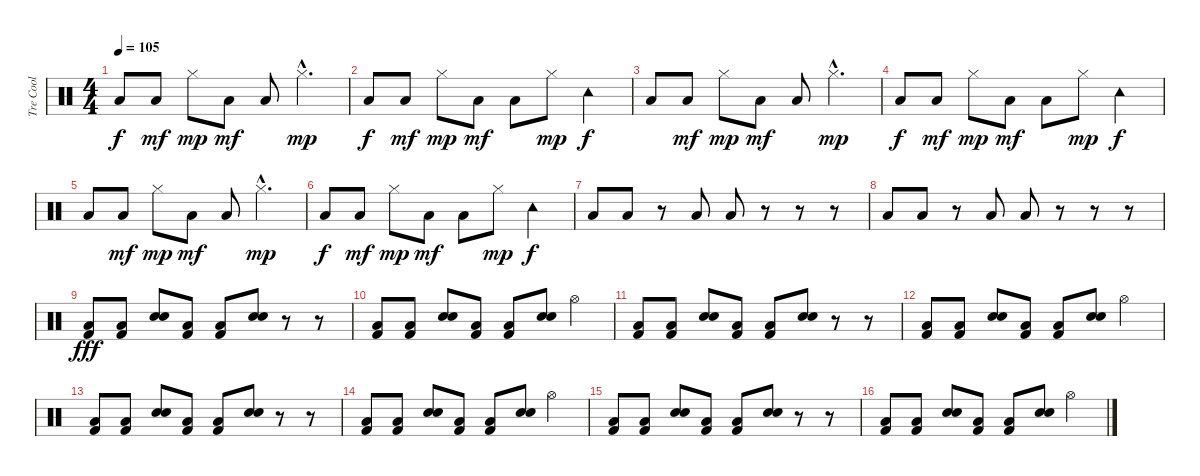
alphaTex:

\track ("Tre Cool" "Tre Cool") {instrument percussion}
\staff {score}
\articulation defaults
\ts (4 4)
\tempo 105
\clef neutral
\ks c "Low Floor Tom (hit)".8{dy f} "Low Floor Tom (hit)".8{dy mf} "Hi-Hat (closed)".8{dy mp} "Low Floor Tom (hit)".8{dy mf} "Low Floor Tom (hit)".8 "Hi-Hat (closed)"{hac}.4{d dy mp}
|
"Low Floor Tom (hit)".8{dy f} "Low Floor Tom (hit)".8{dy mf} "Hi-Hat (closed)".8{dy mp} "Low Floor Tom (hit)".8{dy mf} "Low Floor Tom (hit)".8 "Hi-Hat (closed)".8{dy mp} "Tambourine (hit)".4{dy f} |
"Low Floor Tom (hit)".8 "Low Floor Tom (hit)".8{dy mf} "Hi-Hat (closed)".8{dy mp} "Low Floor Tom (hit)".8{dy mf} "Low Floor Tom (hit)".8 "Hi-Hat (closed)"{hac}.4{d dy mp} |
"Low Floor Tom (hit)".8{dy f} "Low Floor Tom (hit)".8{dy mf} "Hi-Hat (closed)".8{dy mp} "Low Floor Tom (hit)".8{dy mf} "Low Floor Tom (hit)".8 "Hi-Hat (closed)".8{dy mp} "Tambourine (hit)".4{dy f} |
"Low Floor Tom (hit)".8 "Low Floor Tom (hit)".8{dy mf} "Hi-Hat (closed)".8{dy mp} "Low Floor Tom (hit)".8{dy mf} "Low Floor Tom (hit)".8 "Hi-Hat (closed)"{hac}.4{d dy mp} |
"Low Floor Tom (hit)".8{dy f} "Low Floor Tom (hit)".8{dy mf} "Hi-Hat (closed)".8{dy mp} "Low Floor Tom (hit)".8{dy mf} "Low Floor Tom (hit)".8 "Hi-Hat (closed)".8{dy mp} "Tambourine (hit)".4{dy f} |
"Low Floor Tom (hit)".8 "Low Floor Tom (hit)".8 r.8 "Low Floor Tom (hit)".8 "Low Floor Tom (hit)".8 r.8 r.8 r.8 |
"Low Floor Tom (hit)".8 "Low Floor Tom (hit)".8 r.8 "Low Floor Tom (hit)".8 "Low Floor Tom (hit)".8 r.8 r.8 r.8 |
("Kick (hit) 2" "Low Floor Tom (hit)").8{dy fff} ("Kick (hit) 2" "Low Floor Tom (hit)").8 ("Electric Snare (hit)" "Electric Snare (hit)").8 ("Kick (hit) 2" "Low Floor Tom (hit)").8 ("Kick (hit) 2" "Low Floor Tom (hit)").8 ("Electric Snare (hit)" "Electric Snare (hit)").8 r.8 r.8 |
("Kick (hit) 2" "Low Floor Tom (hit)").8 ("Kick (hit) 2" "Low Floor Tom (hit)").8 ("Electric Snare (hit)" "Electric Snare (hit)").8 ("Kick (hit) 2" "Low Floor Tom (hit)").8 ("Kick (hit) 2" "Low Floor Tom (hit)").8 ("Electric Snare (hit)" "Electric Snare (hit)").8 "Hi-Hat (open)".4 |
("Kick (hit) 2" "Low Floor Tom (hit)").8 ("Kick (hit) 2" "Low Floor Tom (hit)").8 ("Electric Snare (hit)" "Electric Snare (hit)").8 ("Kick (hit) 2" "Low Floor Tom (hit)").8 ("Kick (hit) 2" "Low Floor Tom (hit)").8 ("Electric Snare (hit)" "Electric Snare (hit)").8 r.8 r.8 |
("Kick (hit) 2" "Low Floor Tom (hit)").8 ("Kick (hit) 2" "Low Floor Tom (hit)").8 ("Electric Snare (hit)" "Electric Snare (hit)").8 ("Kick (hit) 2" "Low Floor Tom (hit)").8 ("Kick (hit) 2" "Low Floor Tom (hit)").8 ("Electric Snare (hit)" "Electric Snare (hit)").8 "Hi-Hat (open)".4 |
("Kick (hit) 2" "Low Floor Tom (hit)").8 ("Kick (hit) 2" "Low Floor Tom (hit)").8 ("Electric Snare (hit)" "Electric Snare (hit)").8 ("Kick (hit) 2" "Low Floor Tom (hit)").8 ("Kick (hit) 2" "Low Floor Tom (hit)").8 ("Electric Snare (hit)" "Electric Snare (hit)").8 r.8 r.8 |
("Kick (hit) 2" "Low Floor Tom (hit)").8 ("Kick (hit) 2" "Low Floor Tom (hit)").8 ("Electric Snare (hit)" "Electric Snare (hit)").8 ("Kick (hit) 2" "Low Floor Tom (hit)").8 ("Kick (hit) 2" "Low Floor Tom (hit)").8 ("Electric Snare (hit)" "Electric Snare (hit)").8 "Hi-Hat (open)".4 |
("Kick (hit) 2" "Low Floor Tom (hit)").8 ("Kick (hit) 2" "Low Floor Tom (hit)").8 ("Electric Snare (hit)" "Electric Snare (hit)").8 ("Kick (hit) 2" "Low Floor Tom (hit)").8 ("Kick (hit) 2" "Low Floor Tom (hit)").8 ("Electric Snare (hit)" "Electric Snare (hit)").8 r.8 r.8 |
("Kick (hit) 2" "Low Floor Tom (hit)").8 ("Kick (hit) 2" "Low Floor Tom (hit)").8 ("Electric Snare (hit)" "Electric Snare (hit)").8 ("Kick (hit) 2" "Low Floor Tom (hit)").8 ("Kick (hit) 2" "Low Floor Tom (hit)").8 ("Electric Snare (hit)" "Electric Snare (hit)").8 "Hi-Hat (open)".4
